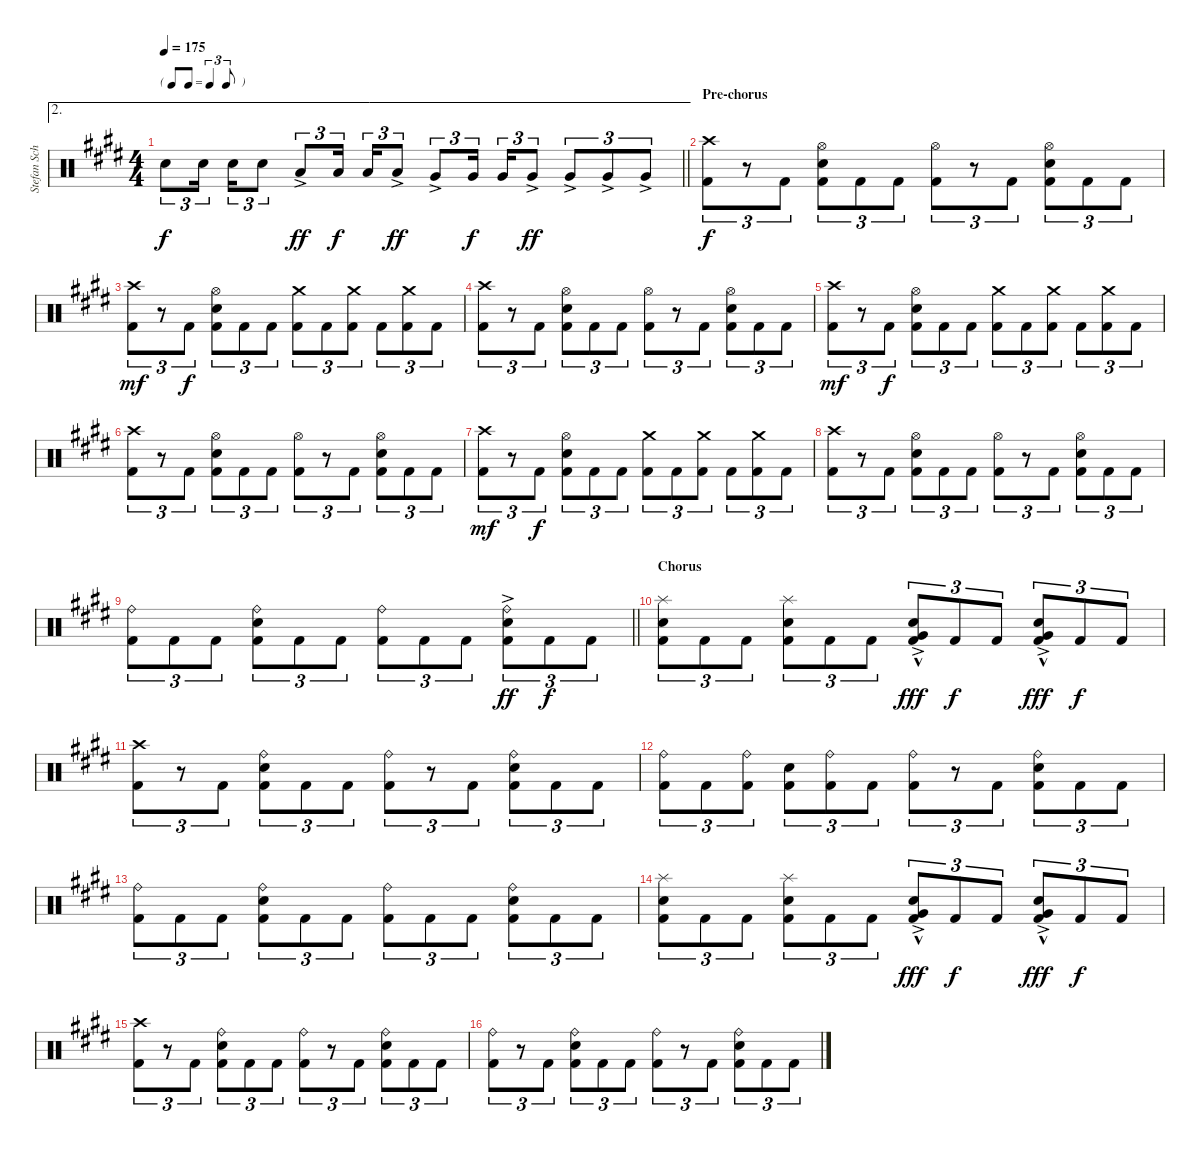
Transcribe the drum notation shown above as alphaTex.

\track ("Stefan Schwarzmann" "Stefan Sch") {instrument percussion}
\staff {score}
\articulation defaults
\ae 2
\ts (4 4)
\tf triplet8th
\tempo 175
\clef neutral
\barLineRight lightlight
\ks c#minor "Snare (hit) 2".8{tu (3 2) dy f} "Snare (hit) 2".16{tu (3 2) beam splitsecondary} "Snare (hit) 2".16{tu (3 2)} "Snare (hit) 2".8{tu (3 2)} "Low Tom (hit)"{ac}.8{tu (3 2) dy ff} "Low Tom (hit)".16{tu (3 2) dy f beam splitsecondary} "Low Tom (hit)".16{tu (3 2)} "Low Tom (hit)"{ac}.8{tu (3 2) dy ff} "Very Low Tom (hit)"{ac}.8{tu (3 2)} "Very Low Tom (hit)".16{tu (3 2) dy f beam splitsecondary} "Very Low Tom (hit)".16{tu (3 2)} "Very Low Tom (hit)"{ac}.8{tu (3 2) dy ff} "Very Low Tom (hit)"{ac}.8{tu (3 2)} "Very Low Tom (hit)"{ac}.8{tu (3 2)} "Very Low Tom (hit)"{ac}.8{tu (3 2)}
|
\section ("" "Pre-chorus")
("Crash high (hit)" "Kick (hit) 2").8{tu (3 2) dy f} r.8{tu (3 2)} "Kick (hit) 2".8{tu (3 2)} ("Hi-Hat (open)" "Snare (hit) 2" "Kick (hit) 2").8{tu (3 2)} "Kick (hit) 2".8{tu (3 2)} "Kick (hit) 2".8{tu (3 2)} ("Hi-Hat (open)" "Kick (hit) 2").8{tu (3 2)} r.8{tu (3 2)} "Kick (hit) 2".8{tu (3 2)} ("Hi-Hat (open)" "Snare (hit) 2" "Kick (hit) 2").8{tu (3 2)} "Kick (hit) 2".8{tu (3 2)} "Kick (hit) 2".8{tu (3 2)} |
("Crash high (hit)" "Kick (hit) 2").8{tu (3 2) dy mf} r.8{tu (3 2)} "Kick (hit) 2".8{tu (3 2) dy f} ("Hi-Hat (open)" "Snare (hit) 2" "Kick (hit) 2").8{tu (3 2)} "Kick (hit) 2".8{tu (3 2)} "Kick (hit) 2".8{tu (3 2)} ("Crash medium (hit)" "Kick (hit) 2").8{tu (3 2)} "Kick (hit) 2".8{tu (3 2)} ("Crash medium (hit)" "Kick (hit) 2").8{tu (3 2)} "Kick (hit) 2".8{tu (3 2)} ("Crash medium (hit)" "Kick (hit) 2").8{tu (3 2)} "Kick (hit) 2".8{tu (3 2)} |
("Crash high (hit)" "Kick (hit) 2").8{tu (3 2)} r.8{tu (3 2)} "Kick (hit) 2".8{tu (3 2)} ("Hi-Hat (open)" "Snare (hit) 2" "Kick (hit) 2").8{tu (3 2)} "Kick (hit) 2".8{tu (3 2)} "Kick (hit) 2".8{tu (3 2)} ("Hi-Hat (open)" "Kick (hit) 2").8{tu (3 2)} r.8{tu (3 2)} "Kick (hit) 2".8{tu (3 2)} ("Hi-Hat (open)" "Snare (hit) 2" "Kick (hit) 2").8{tu (3 2)} "Kick (hit) 2".8{tu (3 2)} "Kick (hit) 2".8{tu (3 2)} |
("Crash high (hit)" "Kick (hit) 2").8{tu (3 2) dy mf} r.8{tu (3 2)} "Kick (hit) 2".8{tu (3 2) dy f} ("Hi-Hat (open)" "Snare (hit) 2" "Kick (hit) 2").8{tu (3 2)} "Kick (hit) 2".8{tu (3 2)} "Kick (hit) 2".8{tu (3 2)} ("Crash medium (hit)" "Kick (hit) 2").8{tu (3 2)} "Kick (hit) 2".8{tu (3 2)} ("Crash medium (hit)" "Kick (hit) 2").8{tu (3 2)} "Kick (hit) 2".8{tu (3 2)} ("Crash medium (hit)" "Kick (hit) 2").8{tu (3 2)} "Kick (hit) 2".8{tu (3 2)} |
("Crash high (hit)" "Kick (hit) 2").8{tu (3 2)} r.8{tu (3 2)} "Kick (hit) 2".8{tu (3 2)} ("Hi-Hat (open)" "Snare (hit) 2" "Kick (hit) 2").8{tu (3 2)} "Kick (hit) 2".8{tu (3 2)} "Kick (hit) 2".8{tu (3 2)} ("Hi-Hat (open)" "Kick (hit) 2").8{tu (3 2)} r.8{tu (3 2)} "Kick (hit) 2".8{tu (3 2)} ("Hi-Hat (open)" "Snare (hit) 2" "Kick (hit) 2").8{tu (3 2)} "Kick (hit) 2".8{tu (3 2)} "Kick (hit) 2".8{tu (3 2)} |
("Crash high (hit)" "Kick (hit) 2").8{tu (3 2) dy mf} r.8{tu (3 2)} "Kick (hit) 2".8{tu (3 2) dy f} ("Hi-Hat (open)" "Snare (hit) 2" "Kick (hit) 2").8{tu (3 2)} "Kick (hit) 2".8{tu (3 2)} "Kick (hit) 2".8{tu (3 2)} ("Crash medium (hit)" "Kick (hit) 2").8{tu (3 2)} "Kick (hit) 2".8{tu (3 2)} ("Crash medium (hit)" "Kick (hit) 2").8{tu (3 2)} "Kick (hit) 2".8{tu (3 2)} ("Crash medium (hit)" "Kick (hit) 2").8{tu (3 2)} "Kick (hit) 2".8{tu (3 2)} |
("Crash high (hit)" "Kick (hit) 2").8{tu (3 2)} r.8{tu (3 2)} "Kick (hit) 2".8{tu (3 2)} ("Hi-Hat (open)" "Snare (hit) 2" "Kick (hit) 2").8{tu (3 2)} "Kick (hit) 2".8{tu (3 2)} "Kick (hit) 2".8{tu (3 2)} ("Hi-Hat (open)" "Kick (hit) 2").8{tu (3 2)} r.8{tu (3 2)} "Kick (hit) 2".8{tu (3 2)} ("Hi-Hat (open)" "Snare (hit) 2" "Kick (hit) 2").8{tu (3 2)} "Kick (hit) 2".8{tu (3 2)} "Kick (hit) 2".8{tu (3 2)} |
\barLineRight lightlight
("Ride (bell)" "Kick (hit) 2").8{tu (3 2)} "Kick (hit) 2".8{tu (3 2)} "Kick (hit) 2".8{tu (3 2)} ("Ride (bell)" "Snare (hit) 2" "Kick (hit) 2").8{tu (3 2)} "Kick (hit) 2".8{tu (3 2)} "Kick (hit) 2".8{tu (3 2)} ("Ride (bell)" "Kick (hit) 2").8{tu (3 2)} "Kick (hit) 2".8{tu (3 2)} "Kick (hit) 2".8{tu (3 2)} ("Ride (bell)"{ac} "Snare (hit) 2" "Kick (hit) 2").8{tu (3 2) dy ff} "Kick (hit) 2".8{tu (3 2) dy f} "Kick (hit) 2".8{tu (3 2)} |
\section ("" "Chorus")
("Splash (hit)" "Snare (hit) 2" "Kick (hit) 2").8{tu (3 2)} "Kick (hit) 2".8{tu (3 2)} "Kick (hit) 2".8{tu (3 2)} ("Splash (hit)" "Snare (hit) 2" "Kick (hit) 2").8{tu (3 2)} "Kick (hit) 2".8{tu (3 2)} "Kick (hit) 2".8{tu (3 2)} ("Snare (hit) 2"{ac} "Very Low Tom (hit)"{hac} "Kick (hit) 2").8{tu (3 2) dy fff} "Kick (hit) 2".8{tu (3 2) dy f} "Kick (hit) 2".8{tu (3 2)} ("Snare (hit) 2"{ac} "Very Low Tom (hit)"{hac} "Kick (hit) 2").8{tu (3 2) dy fff} "Kick (hit) 2".8{tu (3 2) dy f} "Kick (hit) 2".8{tu (3 2)} |
("Crash high (hit)" "Kick (hit) 2").8{tu (3 2)} r.8{tu (3 2)} "Kick (hit) 2".8{tu (3 2)} ("Ride (bell)" "Snare (hit) 2" "Kick (hit) 2").8{tu (3 2)} "Kick (hit) 2".8{tu (3 2)} "Kick (hit) 2".8{tu (3 2)} ("Ride (bell)" "Kick (hit) 2").8{tu (3 2)} r.8{tu (3 2)} "Kick (hit) 2".8{tu (3 2)} ("Ride (bell)" "Snare (hit) 2" "Kick (hit) 2").8{tu (3 2)} "Kick (hit) 2".8{tu (3 2)} "Kick (hit) 2".8{tu (3 2)} |
("Ride (bell)" "Kick (hit) 2").8{tu (3 2)} "Kick (hit) 2".8{tu (3 2)} ("Ride (bell)" "Kick (hit) 2").8{tu (3 2)} ("Snare (hit) 2" "Kick (hit) 2").8{tu (3 2)} ("Ride (bell)" "Kick (hit) 2").8{tu (3 2)} "Kick (hit) 2".8{tu (3 2)} ("Ride (bell)" "Kick (hit) 2").8{tu (3 2)} r.8{tu (3 2)} "Kick (hit) 2".8{tu (3 2)} ("Ride (bell)" "Snare (hit) 2" "Kick (hit) 2").8{tu (3 2)} "Kick (hit) 2".8{tu (3 2)} "Kick (hit) 2".8{tu (3 2)} |
("Ride (bell)" "Kick (hit) 2").8{tu (3 2)} "Kick (hit) 2".8{tu (3 2)} "Kick (hit) 2".8{tu (3 2)} ("Ride (bell)" "Snare (hit) 2" "Kick (hit) 2").8{tu (3 2)} "Kick (hit) 2".8{tu (3 2)} "Kick (hit) 2".8{tu (3 2)} ("Ride (bell)" "Kick (hit) 2").8{tu (3 2)} "Kick (hit) 2".8{tu (3 2)} "Kick (hit) 2".8{tu (3 2)} ("Ride (bell)" "Snare (hit) 2" "Kick (hit) 2").8{tu (3 2)} "Kick (hit) 2".8{tu (3 2)} "Kick (hit) 2".8{tu (3 2)} |
("Splash (hit)" "Snare (hit) 2" "Kick (hit) 2").8{tu (3 2)} "Kick (hit) 2".8{tu (3 2)} "Kick (hit) 2".8{tu (3 2)} ("Splash (hit)" "Snare (hit) 2" "Kick (hit) 2").8{tu (3 2)} "Kick (hit) 2".8{tu (3 2)} "Kick (hit) 2".8{tu (3 2)} ("Snare (hit) 2"{ac} "Very Low Tom (hit)"{hac} "Kick (hit) 2").8{tu (3 2) dy fff} "Kick (hit) 2".8{tu (3 2) dy f} "Kick (hit) 2".8{tu (3 2)} ("Snare (hit) 2"{ac} "Very Low Tom (hit)"{hac} "Kick (hit) 2").8{tu (3 2) dy fff} "Kick (hit) 2".8{tu (3 2) dy f} "Kick (hit) 2".8{tu (3 2)} |
("Crash high (hit)" "Kick (hit) 2").8{tu (3 2)} r.8{tu (3 2)} "Kick (hit) 2".8{tu (3 2)} ("Ride (bell)" "Snare (hit) 2" "Kick (hit) 2").8{tu (3 2)} "Kick (hit) 2".8{tu (3 2)} "Kick (hit) 2".8{tu (3 2)} ("Ride (bell)" "Kick (hit) 2").8{tu (3 2)} r.8{tu (3 2)} "Kick (hit) 2".8{tu (3 2)} ("Ride (bell)" "Snare (hit) 2" "Kick (hit) 2").8{tu (3 2)} "Kick (hit) 2".8{tu (3 2)} "Kick (hit) 2".8{tu (3 2)} |
("Ride (bell)" "Kick (hit) 2").8{tu (3 2)} r.8{tu (3 2)} "Kick (hit) 2".8{tu (3 2)} ("Ride (bell)" "Snare (hit) 2" "Kick (hit) 2").8{tu (3 2)} "Kick (hit) 2".8{tu (3 2)} "Kick (hit) 2".8{tu (3 2)} ("Ride (bell)" "Kick (hit) 2").8{tu (3 2)} r.8{tu (3 2)} "Kick (hit) 2".8{tu (3 2)} ("Ride (bell)" "Snare (hit) 2" "Kick (hit) 2").8{tu (3 2)} "Kick (hit) 2".8{tu (3 2)} "Kick (hit) 2".8{tu (3 2)}
